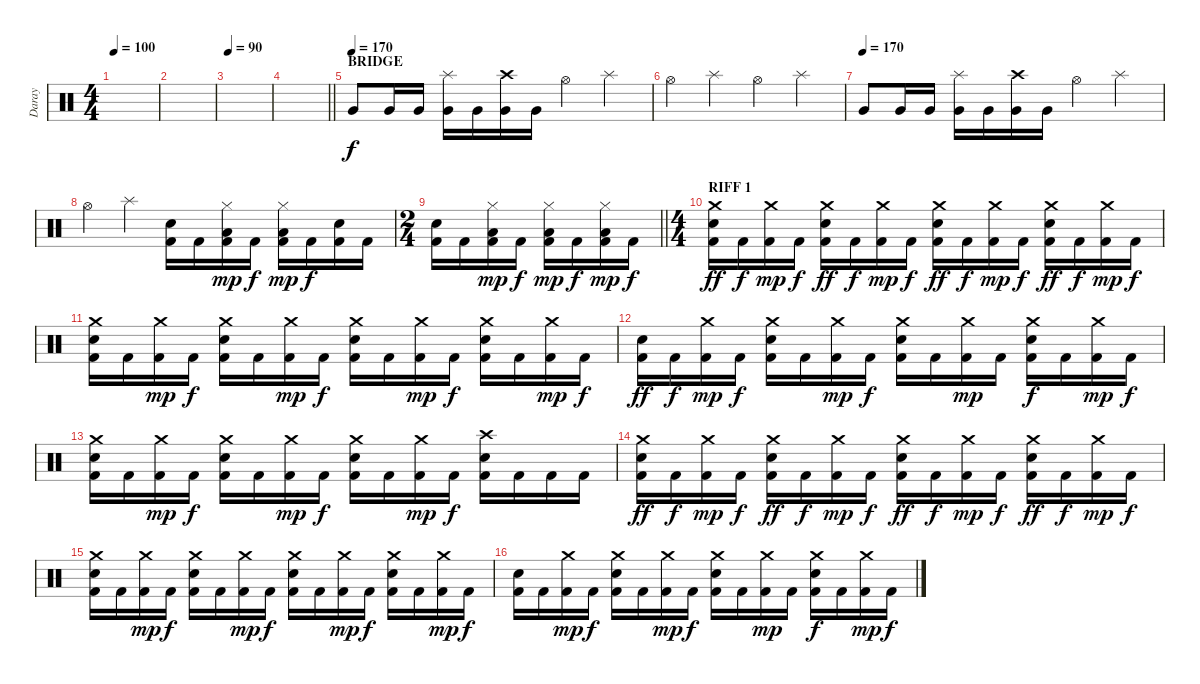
\track ("Daray" "Daray") {instrument percussion}
\staff {score}
\articulation defaults
\ts (4 4)
\tempo 100
\clef neutral
\ks c
|
|
\tempo 90
|
\barLineRight lightlight
|
\section ("" "BRIDGE")
\tempo (170)
"Very Low Tom (hit)".8 "Very Low Tom (hit)".16 "Very Low Tom (hit)".16 ("Very Low Tom (hit)" "Splash (hit)").16 "Very Low Tom (hit)".16 ("Very Low Tom (hit)" "Crash high (hit)").16 "Very Low Tom (hit)".16 "Hi-Hat (open)".4 "Splash (hit)".4 |
"Hi-Hat (open)".4 "Splash (hit)".4 "Hi-Hat (open)".4 "Splash (hit)".4 |
\tempo (170)
"Very Low Tom (hit)".8 "Very Low Tom (hit)".16 "Very Low Tom (hit)".16 ("Very Low Tom (hit)" "Splash (hit)").16 "Very Low Tom (hit)".16 ("Very Low Tom (hit)" "Crash high (hit)").16 "Very Low Tom (hit)".16 "Hi-Hat (open)".4 "Splash (hit)".4 |
"Hi-Hat (open)".4 "Splash (hit)".4 ("Kick (hit) 2" "Snare (hit) 2").16 "Kick (hit) 2".16 ("Kick (hit) 2" "Low Floor Tom (hit)" "Hi-Hat (closed)").16{dy mp} "Kick (hit) 2".16{dy f} ("Kick (hit) 2" "Low Floor Tom (hit)" "Hi-Hat (closed)").16{dy mp} "Kick (hit) 2".16{dy f} ("Kick (hit) 2" "Snare (hit) 2").16 "Kick (hit) 2".16 |
\ts (2 4)
\barLineRight lightlight
("Kick (hit) 2" "Snare (hit) 2").16 "Kick (hit) 2".16 ("Kick (hit) 2" "Low Floor Tom (hit)" "Hi-Hat (closed)").16{dy mp} "Kick (hit) 2".16{dy f} ("Kick (hit) 2" "Low Floor Tom (hit)" "Hi-Hat (closed)").16{dy mp} "Kick (hit) 2".16{dy f} ("Kick (hit) 2" "Low Floor Tom (hit)" "Hi-Hat (closed)").16{dy mp} "Kick (hit) 2".16{dy f} |
\ts (4 4)
\section ("" "RIFF 1")
("Kick (hit) 2" "Snare (hit) 2" "Crash medium (hit)").16{dy ff} "Kick (hit) 2".16{dy f} ("Kick (hit) 2" "Crash medium (hit)").16{dy mp} "Kick (hit) 2".16{dy f} ("Kick (hit) 2" "Snare (hit) 2" "Crash medium (hit)").16{dy ff} "Kick (hit) 2".16{dy f} ("Kick (hit) 2" "Crash medium (hit)").16{dy mp} "Kick (hit) 2".16{dy f} ("Kick (hit) 2" "Snare (hit) 2" "Crash medium (hit)").16{dy ff} "Kick (hit) 2".16{dy f} ("Kick (hit) 2" "Crash medium (hit)").16{dy mp} "Kick (hit) 2".16{dy f} ("Kick (hit) 2" "Snare (hit) 2" "Crash medium (hit)").16{dy ff} "Kick (hit) 2".16{dy f} ("Kick (hit) 2" "Crash medium (hit)").16{dy mp} "Kick (hit) 2".16{dy f} |
("Kick (hit) 2" "Snare (hit) 2" "Crash medium (hit)").16 "Kick (hit) 2".16 ("Kick (hit) 2" "Crash medium (hit)").16{dy mp} "Kick (hit) 2".16{dy f} ("Kick (hit) 2" "Snare (hit) 2" "Crash medium (hit)").16 "Kick (hit) 2".16 ("Kick (hit) 2" "Crash medium (hit)").16{dy mp} "Kick (hit) 2".16{dy f} ("Kick (hit) 2" "Snare (hit) 2" "Crash medium (hit)").16 "Kick (hit) 2".16 ("Kick (hit) 2" "Crash medium (hit)").16{dy mp} "Kick (hit) 2".16{dy f} ("Kick (hit) 2" "Snare (hit) 2" "Crash medium (hit)").16 "Kick (hit) 2".16 ("Kick (hit) 2" "Crash medium (hit)").16{dy mp} "Kick (hit) 2".16{dy f} |
("Kick (hit) 2" "Snare (hit) 2").16{dy ff} "Kick (hit) 2".16{dy f} ("Kick (hit) 2" "Crash medium (hit)").16{dy mp} "Kick (hit) 2".16{dy f} ("Kick (hit) 2" "Snare (hit) 2" "Crash medium (hit)").16 "Kick (hit) 2".16 ("Kick (hit) 2" "Crash medium (hit)").16{dy mp} "Kick (hit) 2".16{dy f} ("Kick (hit) 2" "Snare (hit) 2" "Crash medium (hit)").16 "Kick (hit) 2".16 ("Kick (hit) 2" "Crash medium (hit)").16{dy mp} "Kick (hit) 2".16 ("Kick (hit) 2" "Snare (hit) 2" "Crash medium (hit)").16{dy f} "Kick (hit) 2".16 ("Kick (hit) 2" "Crash medium (hit)").16{dy mp} "Kick (hit) 2".16{dy f} |
("Kick (hit) 2" "Snare (hit) 2" "Crash medium (hit)").16 "Kick (hit) 2".16 ("Kick (hit) 2" "Crash medium (hit)").16{dy mp} "Kick (hit) 2".16{dy f} ("Kick (hit) 2" "Snare (hit) 2" "Crash medium (hit)").16 "Kick (hit) 2".16 ("Kick (hit) 2" "Crash medium (hit)").16{dy mp} "Kick (hit) 2".16{dy f} ("Kick (hit) 2" "Snare (hit) 2" "Crash medium (hit)").16 "Kick (hit) 2".16 ("Kick (hit) 2" "Crash medium (hit)").16{dy mp} "Kick (hit) 2".16{dy f} ("Kick (hit) 2" "Snare (hit) 2" "Crash high (hit)").16 "Kick (hit) 2".16 "Kick (hit) 2".16 "Kick (hit) 2".16 |
("Kick (hit) 2" "Snare (hit) 2" "Crash medium (hit)").16{dy ff} "Kick (hit) 2".16{dy f} ("Kick (hit) 2" "Crash medium (hit)").16{dy mp} "Kick (hit) 2".16{dy f} ("Kick (hit) 2" "Snare (hit) 2" "Crash medium (hit)").16{dy ff} "Kick (hit) 2".16{dy f} ("Kick (hit) 2" "Crash medium (hit)").16{dy mp} "Kick (hit) 2".16{dy f} ("Kick (hit) 2" "Snare (hit) 2" "Crash medium (hit)").16{dy ff} "Kick (hit) 2".16{dy f} ("Kick (hit) 2" "Crash medium (hit)").16{dy mp} "Kick (hit) 2".16{dy f} ("Kick (hit) 2" "Snare (hit) 2" "Crash medium (hit)").16{dy ff} "Kick (hit) 2".16{dy f} ("Kick (hit) 2" "Crash medium (hit)").16{dy mp} "Kick (hit) 2".16{dy f} |
("Kick (hit) 2" "Snare (hit) 2" "Crash medium (hit)").16 "Kick (hit) 2".16 ("Kick (hit) 2" "Crash medium (hit)").16{dy mp} "Kick (hit) 2".16{dy f} ("Kick (hit) 2" "Snare (hit) 2" "Crash medium (hit)").16 "Kick (hit) 2".16 ("Kick (hit) 2" "Crash medium (hit)").16{dy mp} "Kick (hit) 2".16{dy f} ("Kick (hit) 2" "Snare (hit) 2" "Crash medium (hit)").16 "Kick (hit) 2".16 ("Kick (hit) 2" "Crash medium (hit)").16{dy mp} "Kick (hit) 2".16{dy f} ("Kick (hit) 2" "Snare (hit) 2" "Crash medium (hit)").16 "Kick (hit) 2".16 ("Kick (hit) 2" "Crash medium (hit)").16{dy mp} "Kick (hit) 2".16{dy f} |
("Kick (hit) 2" "Snare (hit) 2").16 "Kick (hit) 2".16 ("Kick (hit) 2" "Crash medium (hit)").16{dy mp} "Kick (hit) 2".16{dy f} ("Kick (hit) 2" "Snare (hit) 2" "Crash medium (hit)").16 "Kick (hit) 2".16 ("Kick (hit) 2" "Crash medium (hit)").16{dy mp} "Kick (hit) 2".16{dy f} ("Kick (hit) 2" "Snare (hit) 2" "Crash medium (hit)").16 "Kick (hit) 2".16 ("Kick (hit) 2" "Crash medium (hit)").16{dy mp} "Kick (hit) 2".16 ("Kick (hit) 2" "Snare (hit) 2" "Crash medium (hit)").16{dy f} "Kick (hit) 2".16 ("Kick (hit) 2" "Crash medium (hit)").16{dy mp} "Kick (hit) 2".16{dy f}
